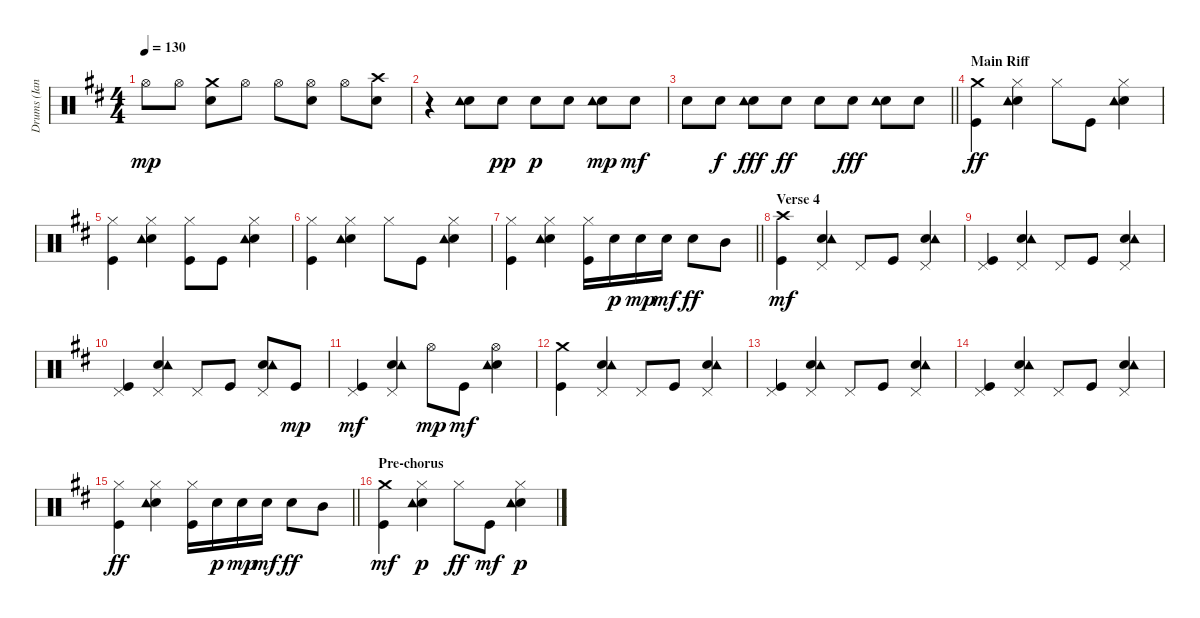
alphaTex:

\track ("Drums (Ian Paice)" "Drums (Ian") {instrument percussion}
\staff {score}
\articulation defaults
\ts (4 4)
\tempo 130
\clef neutral
\ks bminor "Hi-Hat (open)".8{dy mp} "Hi-Hat (open)".8
("Crash medium (hit)" "Electric Snare (hit)").8 "Hi-Hat (open)".8 "Hi-Hat (open)".8 ("Hi-Hat (open)" "Electric Snare (hit)").8 "Hi-Hat (open)".8 ("Crash high (hit)" "Electric Snare (hit)").8 |
r.4 ("Electric Snare (hit)" "Tambourine (hit)").8 "Electric Snare (hit)".8{dy pp} "Electric Snare (hit)".8{dy p} "Electric Snare (hit)".8 ("Electric Snare (hit)" "Tambourine (hit)").8{dy mp} "Electric Snare (hit)".8{dy mf} |
\barLineRight lightlight "Electric Snare (hit)".8 "Electric Snare (hit)".8{dy f}
("Electric Snare (hit)" "Tambourine (hit)").8{dy fff} "Electric Snare (hit)".8{dy ff} "Electric Snare (hit)".8 "Electric Snare (hit)".8{dy fff} ("Electric Snare (hit)" "Tambourine (hit)").8 "Electric Snare (hit)".8 |
\section ("" "Main Riff")
("Crash medium (hit)" "Kick (hit)").4{dy ff} ("Hi-Hat (closed)" "Electric Snare (hit)" "Tambourine (hit)").4 "Hi-Hat (closed)".8 "Kick (hit)".8 ("Hi-Hat (closed)" "Electric Snare (hit)" "Tambourine (hit)").4 |
("Hi-Hat (closed)" "Kick (hit)").4 ("Hi-Hat (closed)" "Electric Snare (hit)" "Tambourine (hit)").4 ("Hi-Hat (closed)" "Kick (hit)").8 "Kick (hit)".8 ("Hi-Hat (closed)" "Electric Snare (hit)" "Tambourine (hit)").4 |
("Hi-Hat (closed)" "Kick (hit)").4 ("Hi-Hat (closed)" "Electric Snare (hit)" "Tambourine (hit)").4 "Hi-Hat (closed)".8 "Kick (hit)".8 ("Hi-Hat (closed)" "Electric Snare (hit)" "Tambourine (hit)").4 |
\barLineRight lightlight
("Hi-Hat (closed)" "Kick (hit)").4 ("Hi-Hat (closed)" "Electric Snare (hit)" "Tambourine (hit)").4 ("Hi-Hat (closed)" "Kick (hit)").16 "Electric Snare (hit)".16{dy p} "Electric Snare (hit)".16{dy mp} "Electric Snare (hit)".16{dy mf} "Electric Snare (hit)".8{dy ff} "Mid Tom (hit)".8 |
\section ("" "Verse 4")
("Crash high (hit)" "Kick (hit)").4{dy mf} ("Pedal Hi-Hat (hit)" "Electric Snare (hit)" "Tambourine (hit)").4 "Pedal Hi-Hat (hit)".8 "Kick (hit)".8 ("Pedal Hi-Hat (hit)" "Electric Snare (hit)" "Tambourine (hit)").4 |
("Pedal Hi-Hat (hit)" "Kick (hit)").4 ("Pedal Hi-Hat (hit)" "Electric Snare (hit)" "Tambourine (hit)").4 "Pedal Hi-Hat (hit)".8 "Kick (hit)".8 ("Pedal Hi-Hat (hit)" "Electric Snare (hit)" "Tambourine (hit)").4 |
("Pedal Hi-Hat (hit)" "Kick (hit)").4 ("Pedal Hi-Hat (hit)" "Electric Snare (hit)" "Tambourine (hit)").4 "Pedal Hi-Hat (hit)".8 "Kick (hit)".8 ("Pedal Hi-Hat (hit)" "Electric Snare (hit)" "Tambourine (hit)").8 "Kick (hit)".8{dy mp} |
("Pedal Hi-Hat (hit)" "Kick (hit)").4{dy mf} ("Pedal Hi-Hat (hit)" "Electric Snare (hit)" "Tambourine (hit)").4 "Hi-Hat (open)".8{dy mp} "Kick (hit)".8{dy mf} ("Hi-Hat (open)" "Electric Snare (hit)" "Tambourine (hit)").4 |
("Crash medium (hit)" "Kick (hit)").4 ("Pedal Hi-Hat (hit)" "Electric Snare (hit)" "Tambourine (hit)").4 "Pedal Hi-Hat (hit)".8 "Kick (hit)".8 ("Pedal Hi-Hat (hit)" "Electric Snare (hit)" "Tambourine (hit)").4 |
("Pedal Hi-Hat (hit)" "Kick (hit)").4 ("Pedal Hi-Hat (hit)" "Electric Snare (hit)" "Tambourine (hit)").4 "Pedal Hi-Hat (hit)".8 "Kick (hit)".8 ("Pedal Hi-Hat (hit)" "Electric Snare (hit)" "Tambourine (hit)").4 |
("Pedal Hi-Hat (hit)" "Kick (hit)").4 ("Pedal Hi-Hat (hit)" "Electric Snare (hit)" "Tambourine (hit)").4 "Pedal Hi-Hat (hit)".8 "Kick (hit)".8 ("Pedal Hi-Hat (hit)" "Electric Snare (hit)" "Tambourine (hit)").4 |
\barLineRight lightlight
("Hi-Hat (closed)" "Kick (hit)").4{dy ff} ("Hi-Hat (closed)" "Electric Snare (hit)" "Tambourine (hit)").4 ("Hi-Hat (closed)" "Kick (hit)").16 "Electric Snare (hit)".16{dy p} "Electric Snare (hit)".16{dy mp} "Electric Snare (hit)".16{dy mf} "Electric Snare (hit)".8{dy ff} "Mid Tom (hit)".8 |
\section ("" "Pre-chorus")
("Crash medium (hit)" "Kick (hit)").4{dy mf} ("Hi-Hat (closed)" "Electric Snare (hit)" "Tambourine (hit)").4{dy p} "Hi-Hat (closed)".8{dy ff} "Kick (hit)".8{dy mf} ("Hi-Hat (closed)" "Electric Snare (hit)" "Tambourine (hit)").4{dy p}
